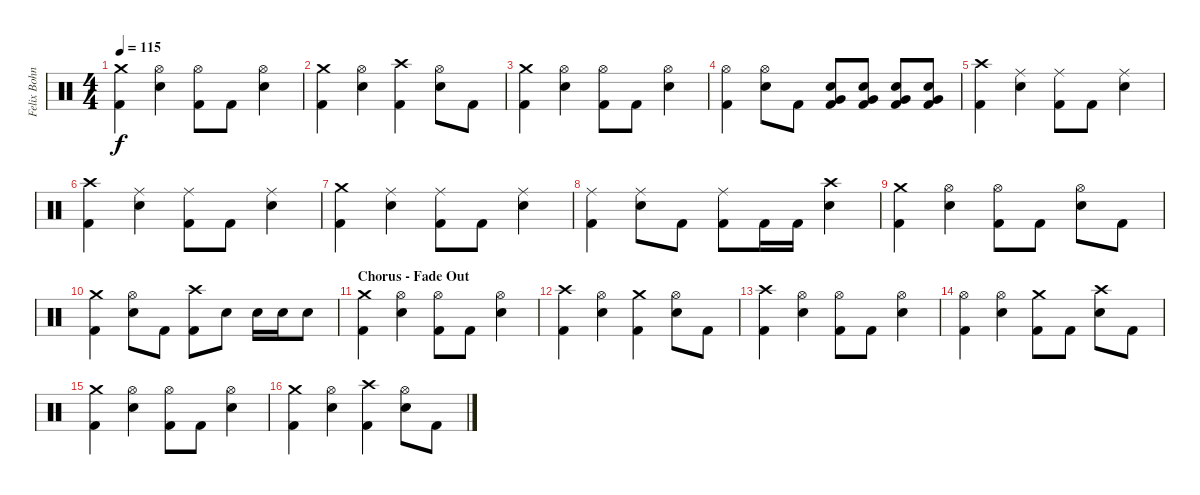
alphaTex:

\track ("Felix Bohnke" "Felix Bohn") {instrument percussion}
\staff {score}
\articulation defaults
\ts (4 4)
\tempo 115
\clef neutral
\ks c
("Crash medium (hit)" "Kick (hit) 2").4{dy f} ("Hi-Hat (open)" "Electric Snare (hit)").4 ("Hi-Hat (open)" "Kick (hit) 2").8 "Kick (hit) 2".8 ("Hi-Hat (open)" "Electric Snare (hit)").4 |
("Crash medium (hit)" "Kick (hit) 2").4 ("Hi-Hat (open)" "Electric Snare (hit)").4 ("Crash high (hit)" "Kick (hit) 2").4 ("Hi-Hat (open)" "Electric Snare (hit)").8 "Kick (hit) 2".8 |
("Crash medium (hit)" "Kick (hit) 2").4 ("Hi-Hat (open)" "Electric Snare (hit)").4 ("Hi-Hat (open)" "Kick (hit) 2").8 "Kick (hit) 2".8 ("Hi-Hat (open)" "Electric Snare (hit)").4 |
("Hi-Hat (open)" "Kick (hit) 2").4 ("Hi-Hat (open)" "Electric Snare (hit)").8 "Kick (hit) 2".8 ("Very Low Tom (hit)" "Electric Snare (hit)" "Kick (hit) 2").8 ("Very Low Tom (hit)" "Electric Snare (hit)" "Kick (hit) 2").8 ("Very Low Tom (hit)" "Electric Snare (hit)" "Kick (hit) 2").8 ("Very Low Tom (hit)" "Electric Snare (hit)" "Kick (hit) 2").8 |
("Crash high (hit)" "Kick (hit) 2").4 ("Ride (middle)" "Electric Snare (hit)").4 ("Ride (middle)" "Kick (hit) 2").8 "Kick (hit) 2".8 ("Ride (middle)" "Electric Snare (hit)").4 |
("Crash high (hit)" "Kick (hit) 2").4 ("Ride (middle)" "Electric Snare (hit)").4 ("Ride (middle)" "Kick (hit) 2").8 "Kick (hit) 2".8 ("Ride (middle)" "Electric Snare (hit)").4 |
("Crash medium (hit)" "Kick (hit) 2").4 ("Ride (middle)" "Electric Snare (hit)").4 ("Ride (middle)" "Kick (hit) 2").8 "Kick (hit) 2".8 ("Ride (middle)" "Electric Snare (hit)").4 |
("Ride (middle)" "Kick (hit) 2").4 ("Ride (middle)" "Electric Snare (hit)").8 "Kick (hit) 2".8 ("Ride (middle)" "Kick (hit) 2").8 "Kick (hit) 2".16 "Kick (hit) 2".16 ("Crash high (hit)" "Electric Snare (hit)").4 |
("Crash medium (hit)" "Kick (hit) 2").4 ("Hi-Hat (open)" "Electric Snare (hit)").4 ("Hi-Hat (open)" "Kick (hit) 2").8 "Kick (hit) 2".8 ("Hi-Hat (open)" "Electric Snare (hit)").8 "Kick (hit) 2".8 |
("Crash medium (hit)" "Kick (hit) 2").4 ("Hi-Hat (open)" "Electric Snare (hit)").8 "Kick (hit) 2".8 ("Crash high (hit)" "Kick (hit) 2").8 "Electric Snare (hit)".8 "Electric Snare (hit)".16 "Electric Snare (hit)".16 "Electric Snare (hit)".8 |
\section ("" "Chorus - Fade Out")
("Crash medium (hit)" "Kick (hit) 2").4 ("Hi-Hat (open)" "Electric Snare (hit)").4 ("Hi-Hat (open)" "Kick (hit) 2").8 "Kick (hit) 2".8 ("Hi-Hat (open)" "Electric Snare (hit)").4 |
("Crash high (hit)" "Kick (hit) 2").4 ("Hi-Hat (open)" "Electric Snare (hit)").4 ("Crash medium (hit)" "Kick (hit) 2").4 ("Hi-Hat (open)" "Electric Snare (hit)").8 "Kick (hit) 2".8 |
("Crash high (hit)" "Kick (hit) 2").4 ("Hi-Hat (open)" "Electric Snare (hit)").4 ("Hi-Hat (open)" "Kick (hit) 2").8 "Kick (hit) 2".8 ("Hi-Hat (open)" "Electric Snare (hit)").4 |
("Hi-Hat (open)" "Kick (hit) 2").4 ("Hi-Hat (open)" "Electric Snare (hit)").4 ("Crash medium (hit)" "Kick (hit) 2").8 "Kick (hit) 2".8 ("Crash high (hit)" "Electric Snare (hit)").8 "Kick (hit) 2".8 |
("Crash medium (hit)" "Kick (hit) 2").4 ("Hi-Hat (open)" "Electric Snare (hit)").4 ("Hi-Hat (open)" "Kick (hit) 2").8 "Kick (hit) 2".8 ("Hi-Hat (open)" "Electric Snare (hit)").4 |
("Crash medium (hit)" "Kick (hit) 2").4 ("Hi-Hat (open)" "Electric Snare (hit)").4 ("Crash high (hit)" "Kick (hit) 2").4 ("Hi-Hat (open)" "Electric Snare (hit)").8 "Kick (hit) 2".8
